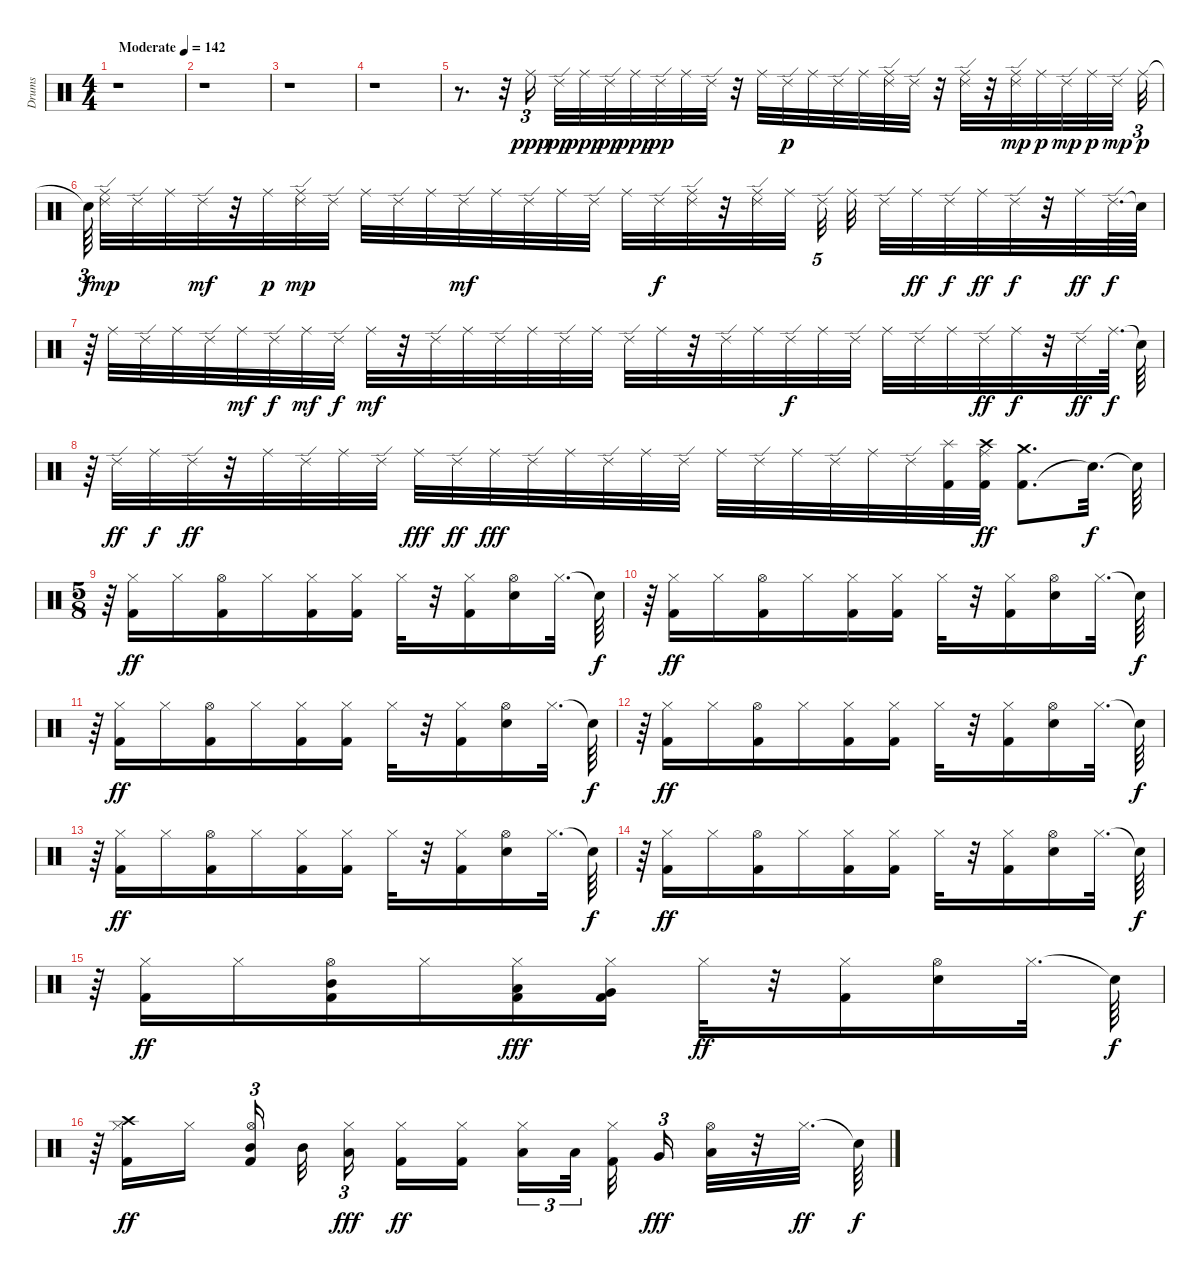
\track ("Drums                               " "Drums     ") {instrument percussion}
\staff {score}
\articulation defaults
\ts (4 4)
\tempo (142 "Moderate")
\clef neutral
\ks c
r.1{dy ppp} |
r.1 |
r.1 |
r.1 |
r.8{d} r.32 "Ride (middle)".16{tu (3 2)} "Ride (edge) 2".32{dy pp} "Ride (middle)".32{dy ppp} "Ride (edge) 2".32{dy pp} "Ride (middle)".32{dy ppp} "Ride (edge) 2".32{dy pp} "Ride (middle)".32 "Ride (edge) 2".32 r.32 "Ride (middle)".32 "Ride (edge) 2".32{dy p} "Ride (middle)".32 "Ride (edge) 2".32 "Ride (middle)".32 ("Ride (edge) 2" "Ride (middle)").32 "Ride (edge) 2".32 r.32 ("Ride (middle)" "Ride (edge) 2").32 r.32 ("Ride (middle)" "Ride (edge) 2").32{dy mp} "Ride (middle)".32{dy p} "Ride (edge) 2".32{dy mp} "Ride (middle)".32{dy p} "Ride (edge) 2".32{dy mp} "Ride (middle)".32{tu (3 2) dy p} |
"Snare (hit)"{t}.64{tu (3 2) dy f} ("Ride (edge) 2" "Ride (middle)").32{dy mp} "Ride (edge) 2".32 "Ride (middle)".32 "Ride (edge) 2".32{dy mf} r.32 "Ride (middle)".32{dy p} ("Ride (edge) 2" "Ride (middle)").32{dy mp} "Ride (edge) 2".32 "Ride (middle)".32 "Ride (edge) 2".32 "Ride (middle)".32 "Ride (edge) 2".32{dy mf} "Ride (middle)".32 "Ride (edge) 2".32 "Ride (middle)".32 "Ride (edge) 2".32 "Ride (middle)".32 "Ride (edge) 2".32{dy f} ("Ride (middle)" "Ride (edge) 2").32 r.32 ("Ride (middle)" "Ride (edge) 2").32 "Ride (middle)".32 "Ride (edge) 2".32{tu (5 4)} "Ride (middle)".32 "Ride (edge) 2".32 "Ride (middle)".32{dy ff} "Ride (edge) 2".32{dy f} "Ride (middle)".32{dy ff} "Ride (edge) 2".32{dy f} r.32 "Ride (middle)".32{dy ff} "Ride (edge) 2".64{d dy f} "Snare (hit)"{t}.64 |
r.64 "Ride (middle)".32 "Ride (edge) 2".32 "Ride (middle)".32 "Ride (edge) 2".32 "Ride (middle)".32{dy mf} "Ride (edge) 2".32{dy f} "Ride (middle)".32{dy mf} "Ride (edge) 2".32{dy f} "Ride (middle)".32{dy mf} r.32 "Ride (edge) 2".32 "Ride (middle)".32 "Ride (edge) 2".32 "Ride (middle)".32 "Ride (edge) 2".32 "Ride (middle)".32 "Ride (edge) 2".32 "Ride (middle)".32 r.32 "Ride (edge) 2".32 "Ride (middle)".32 "Ride (edge) 2".32{dy f} "Ride (middle)".32 "Ride (edge) 2".32 "Ride (middle)".32 "Ride (edge) 2".32 "Ride (middle)".32 "Ride (edge) 2".32{dy ff} "Ride (middle)".32{dy f} r.32 "Ride (edge) 2".32{dy ff} "Ride (middle)".64{d dy f} "Snare (hit)"{t}.64 |
r.64 "Ride (edge) 2".32{dy ff} "Ride (middle)".32{dy f} "Ride (edge) 2".32{dy ff} r.32 "Ride (middle)".32 "Ride (edge) 2".32 "Ride (middle)".32 "Ride (edge) 2".32 "Ride (middle)".32{dy fff} "Ride (edge) 2".32{dy ff} "Ride (middle)".32{dy fff} "Ride (edge) 2".32 "Ride (middle)".32 "Ride (edge) 2".32 "Ride (middle)".32 "Ride (edge) 2".32 "Ride (middle)".32 "Ride (edge) 2".32 "Ride (middle)".32 "Ride (edge) 2".32 "Ride (middle)".32 "Ride (edge) 2".32 ("Kick (hit) 2" "Splash (hit)").32 ("Ride (middle)" "Kick (hit) 2" "Crash high (hit)").32{dy ff} ("Kick (hit) 2" "Crash medium (hit)").8{d} "Snare (hit)"{t}.32{d dy f} "Snare (hit)"{t}.64 |
\ts (5 8)
r.64 ("Kick (hit) 2" "Hi-Hat (closed)").16{dy ff} "Hi-Hat (closed)".16 ("Hi-Hat (open)" "Kick (hit) 2").16 "Hi-Hat (closed)".16 ("Hi-Hat (closed)" "Kick (hit) 2").16 ("Kick (hit) 2" "Hi-Hat (closed)").16 "Hi-Hat (closed)".32 r.32 ("Kick (hit) 2" "Hi-Hat (closed)").16 ("Hi-Hat (open)" "Snare (hit) 2").16 "Hi-Hat (closed)".32{d} "Snare (hit)"{t}.64{dy f} |
r.64 ("Kick (hit) 2" "Hi-Hat (closed)").16{dy ff} "Hi-Hat (closed)".16 ("Hi-Hat (open)" "Kick (hit) 2").16 "Hi-Hat (closed)".16 ("Hi-Hat (closed)" "Kick (hit) 2").16 ("Kick (hit) 2" "Hi-Hat (closed)").16 "Hi-Hat (closed)".32 r.32 ("Kick (hit) 2" "Hi-Hat (closed)").16 ("Hi-Hat (open)" "Snare (hit) 2").16 "Hi-Hat (closed)".32{d} "Snare (hit)"{t}.64{dy f} |
r.64 ("Hi-Hat (closed)" "Kick (hit) 2").16{dy ff} "Hi-Hat (closed)".16 ("Hi-Hat (open)" "Kick (hit) 2").16 "Hi-Hat (closed)".16 ("Kick (hit) 2" "Hi-Hat (closed)").16 ("Kick (hit) 2" "Hi-Hat (closed)").16 "Hi-Hat (closed)".32 r.32 ("Kick (hit) 2" "Hi-Hat (closed)").16 ("Snare (hit) 2" "Hi-Hat (open)").16 "Hi-Hat (closed)".32{d} "Snare (hit)"{t}.64{dy f} |
r.64 ("Hi-Hat (closed)" "Kick (hit) 2").16{dy ff} "Hi-Hat (closed)".16 ("Kick (hit) 2" "Hi-Hat (open)").16 "Hi-Hat (closed)".16 ("Kick (hit) 2" "Hi-Hat (closed)").16 ("Kick (hit) 2" "Hi-Hat (closed)").16 "Hi-Hat (closed)".32 r.32 ("Kick (hit) 2" "Hi-Hat (closed)").16 ("Snare (hit) 2" "Hi-Hat (open)").16 "Hi-Hat (closed)".32{d} "Snare (hit)"{t}.64{dy f} |
r.64 ("Hi-Hat (closed)" "Kick (hit) 2").16{dy ff} "Hi-Hat (closed)".16 ("Kick (hit) 2" "Hi-Hat (open)").16 "Hi-Hat (closed)".16 ("Hi-Hat (closed)" "Kick (hit) 2").16 ("Kick (hit) 2" "Hi-Hat (closed)").16 "Hi-Hat (closed)".32 r.32 ("Kick (hit) 2" "Hi-Hat (closed)").16 ("Hi-Hat (open)" "Snare (hit) 2").16 "Hi-Hat (closed)".32{d} "Snare (hit)"{t}.64{dy f} |
r.64 ("Hi-Hat (closed)" "Kick (hit) 2").16{dy ff} "Hi-Hat (closed)".16 ("Kick (hit) 2" "Hi-Hat (open)").16 "Hi-Hat (closed)".16 ("Kick (hit) 2" "Hi-Hat (closed)").16 ("Kick (hit) 2" "Hi-Hat (closed)").16 "Hi-Hat (closed)".32 r.32 ("Kick (hit) 2" "Hi-Hat (closed)").16 ("Snare (hit) 2" "Hi-Hat (open)").16 "Hi-Hat (closed)".32{d} "Snare (hit)"{t}.64{dy f} |
r.64 ("Kick (hit) 2" "Hi-Hat (closed)").16{dy ff} "Hi-Hat (closed)".16 ("Kick (hit) 2" "Mid Tom (hit)" "Hi-Hat (open)").16 "Hi-Hat (closed)".16 ("Kick (hit) 2" "Hi-Hat (closed)" "Low Tom (hit)").16{dy fff} ("Kick (hit) 2" "Very Low Tom (hit)" "Hi-Hat (closed)").16 "Hi-Hat (closed)".32{dy ff} r.32 ("Kick (hit) 2" "Hi-Hat (closed)").16 ("Hi-Hat (open)" "Snare (hit) 2").16 "Hi-Hat (closed)".32{d} "Snare (hit)"{t}.64{dy f} |
r.64 ("Hi-Hat (closed)" "Kick (hit) 2" "Crash high (hit)").16{dy ff} "Hi-Hat (closed)".16 ("Hi-Hat (open)" "Mid Tom (hit)" "Kick (hit) 2").16{tu (3 2)} "Mid Tom (hit)".32 ("Hi-Hat (closed)" "Low Tom (hit)").16{tu (3 2) dy fff} ("Kick (hit) 2" "Hi-Hat (closed)").16{dy ff} ("Kick (hit) 2" "Hi-Hat (closed)").16 ("Hi-Hat (closed)" "Low Tom (hit)").16{tu (3 2)} "Low Tom (hit)".32{tu (3 2)} ("Kick (hit) 2" "Hi-Hat (closed)").32 "Very Low Tom (hit)".16{tu (3 2) dy fff} ("Hi-Hat (open)" "Low Floor Tom (hit)").32 r.32 "Hi-Hat (closed)".32{d dy ff} "Snare (hit)"{t}.64{dy f}
